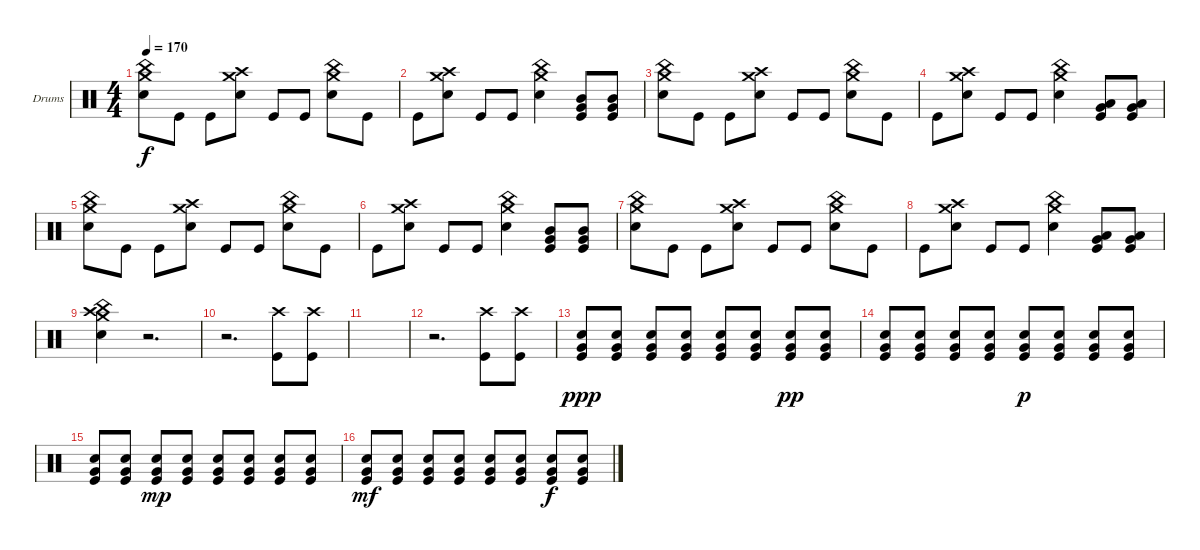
\defaultSystemsLayout 4
\bracketExtendMode groupsimilarinstruments
\firstSystemTrackNameOrientation horizontal
\otherSystemsTrackNameOrientation horizontal
\track ("Drumkit" "Drums") {instrument percussion}
\staff {score}
\articulation defaults
\ts (4 4)
\tempo 170
\clef neutral
\scale
0.472222
\ks c
("Snare (hit) 2" "Crash medium (hit)" "China (hit)").8{dy f} "Kick (hit)".8 "Kick (hit)".8 ("Snare (hit) 2" "Crash medium (hit)" "Crash high (hit)").8 "Kick (hit)".8 "Kick (hit)".8 ("Snare (hit) 2" "Crash medium (hit)" "China (hit)").8 "Kick (hit)".8 |
\scale
0.263889 "Kick (hit)".8 ("Snare (hit) 2" "Crash medium (hit)" "Crash high (hit)").8 "Kick (hit)".8 "Kick (hit)".8 ("Snare (hit) 2" "Crash medium (hit)" "China (hit)").4 ("Kick (hit)" "Very Low Tom (hit)" "Mid Tom (hit)").8 ("Kick (hit)" "Very Low Tom (hit)" "Mid Tom (hit)").8 |
\scale
0.263889 ("Snare (hit) 2" "Crash medium (hit)" "China (hit)").8 "Kick (hit)".8 "Kick (hit)".8 ("Snare (hit) 2" "Crash medium (hit)" "Crash high (hit)").8 "Kick (hit)".8 "Kick (hit)".8 ("Snare (hit) 2" "Crash medium (hit)" "China (hit)").8 "Kick (hit)".8 |
\scale
0.333333 "Kick (hit)".8 ("Snare (hit) 2" "Crash medium (hit)" "Crash high (hit)").8 "Kick (hit)".8 "Kick (hit)".8 ("Snare (hit) 2" "Crash medium (hit)" "China (hit)").4 ("Kick (hit)" "Very Low Tom (hit)" "Low Tom (hit)").8 ("Kick (hit)" "Very Low Tom (hit)" "Low Tom (hit)").8 |
\scale
0.333333 ("Snare (hit) 2" "Crash medium (hit)" "China (hit)").8 "Kick (hit)".8 "Kick (hit)".8 ("Snare (hit) 2" "Crash medium (hit)" "Crash high (hit)").8 "Kick (hit)".8 "Kick (hit)".8 ("Snare (hit) 2" "Crash medium (hit)" "China (hit)").8 "Kick (hit)".8 |
\scale
0.333333 "Kick (hit)".8 ("Snare (hit) 2" "Crash medium (hit)" "Crash high (hit)").8 "Kick (hit)".8 "Kick (hit)".8 ("Snare (hit) 2" "Crash medium (hit)" "China (hit)").4 ("Kick (hit)" "Very Low Tom (hit)" "Mid Tom (hit)").8 ("Kick (hit)" "Very Low Tom (hit)" "Mid Tom (hit)").8 |
\scale
0.333333 ("Snare (hit) 2" "Crash medium (hit)" "China (hit)").8 "Kick (hit)".8 "Kick (hit)".8 ("Snare (hit) 2" "Crash medium (hit)" "Crash high (hit)").8 "Kick (hit)".8 "Kick (hit)".8 ("Snare (hit) 2" "Crash medium (hit)" "China (hit)").8 "Kick (hit)".8 |
\scale
0.333333 "Kick (hit)".8 ("Snare (hit) 2" "Crash medium (hit)" "Crash high (hit)").8 "Kick (hit)".8 "Kick (hit)".8 ("Snare (hit) 2" "Crash medium (hit)" "China (hit)").4 ("Kick (hit)" "Very Low Tom (hit)" "Low Tom (hit)").8 ("Kick (hit)" "Very Low Tom (hit)" "Low Tom (hit)").8 |
\scale
0.333333 ("Snare (hit) 2" "Crash medium (hit)" "Crash high (hit)" "China (hit)").4 r.2{d} |
\scale
0.333333 r.2{d} ("Kick (hit)" "Crash high (hit)").8 ("Kick (hit)" "Crash high (hit)").8 |
\scale
0.333333 |
\scale
0.333333 r.2{d} ("Kick (hit)" "Crash high (hit)").8 ("Kick (hit)" "Crash high (hit)").8 |
\scale
0.333333 ("Kick (hit)" "Very Low Tom (hit)" "Snare (hit) 2").8{dy ppp} ("Kick (hit)" "Very Low Tom (hit)" "Snare (hit) 2").8 ("Kick (hit)" "Very Low Tom (hit)" "Snare (hit) 2").8 ("Kick (hit)" "Very Low Tom (hit)" "Snare (hit) 2").8 ("Kick (hit)" "Very Low Tom (hit)" "Snare (hit) 2").8 ("Kick (hit)" "Very Low Tom (hit)" "Snare (hit) 2").8 ("Kick (hit)" "Very Low Tom (hit)" "Snare (hit) 2").8{dy pp} ("Kick (hit)" "Very Low Tom (hit)" "Snare (hit) 2").8 |
\scale
0.333333 ("Kick (hit)" "Very Low Tom (hit)" "Snare (hit) 2").8 ("Kick (hit)" "Very Low Tom (hit)" "Snare (hit) 2").8 ("Kick (hit)" "Very Low Tom (hit)" "Snare (hit) 2").8 ("Kick (hit)" "Very Low Tom (hit)" "Snare (hit) 2").8 ("Kick (hit)" "Very Low Tom (hit)" "Snare (hit) 2").8{dy p} ("Kick (hit)" "Very Low Tom (hit)" "Snare (hit) 2").8 ("Kick (hit)" "Very Low Tom (hit)" "Snare (hit) 2").8 ("Kick (hit)" "Very Low Tom (hit)" "Snare (hit) 2").8 |
\scale
0.333333 ("Kick (hit)" "Very Low Tom (hit)" "Snare (hit) 2").8 ("Kick (hit)" "Very Low Tom (hit)" "Snare (hit) 2").8 ("Kick (hit)" "Very Low Tom (hit)" "Snare (hit) 2").8{dy mp} ("Kick (hit)" "Very Low Tom (hit)" "Snare (hit) 2").8 ("Kick (hit)" "Very Low Tom (hit)" "Snare (hit) 2").8 ("Kick (hit)" "Very Low Tom (hit)" "Snare (hit) 2").8 ("Kick (hit)" "Very Low Tom (hit)" "Snare (hit) 2").8 ("Kick (hit)" "Very Low Tom (hit)" "Snare (hit) 2").8 |
("Kick (hit)" "Very Low Tom (hit)" "Snare (hit) 2").8{dy mf} ("Kick (hit)" "Very Low Tom (hit)" "Snare (hit) 2").8 ("Kick (hit)" "Very Low Tom (hit)" "Snare (hit) 2").8 ("Kick (hit)" "Very Low Tom (hit)" "Snare (hit) 2").8 ("Kick (hit)" "Very Low Tom (hit)" "Snare (hit) 2").8 ("Kick (hit)" "Very Low Tom (hit)" "Snare (hit) 2").8 ("Kick (hit)" "Very Low Tom (hit)" "Snare (hit) 2").8{dy f} ("Kick (hit)" "Very Low Tom (hit)" "Snare (hit) 2").8
